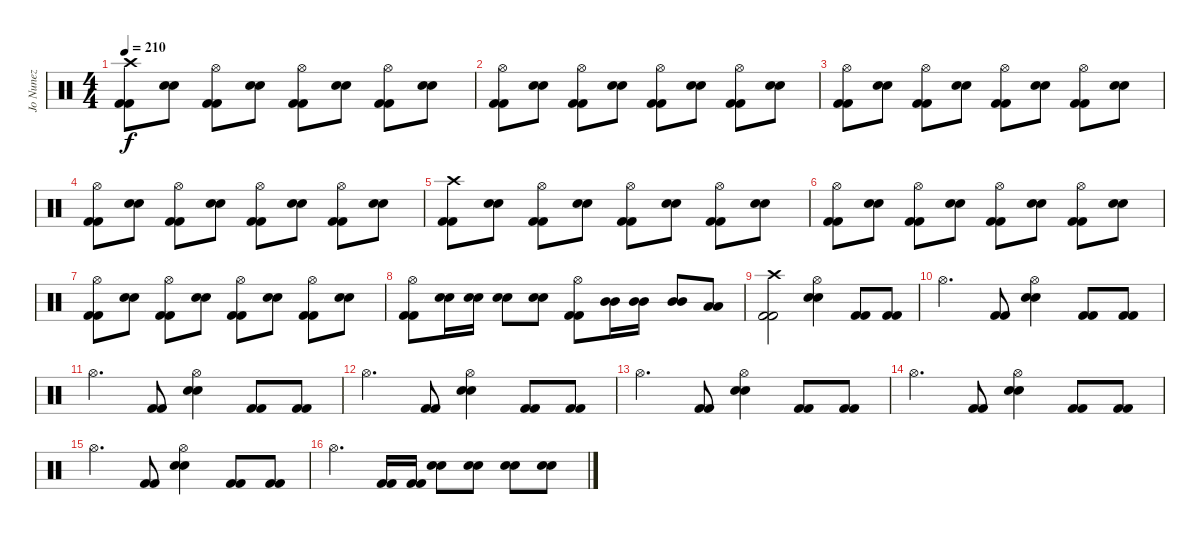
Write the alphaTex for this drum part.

\track ("Jo Nunez" "Jo Nunez") {instrument percussion}
\staff {score}
\articulation defaults
\ts (4 4)
\tempo 210
\clef neutral
\ks c
("Kick (hit) 2" "Kick (hit) 2" "Crash high (hit)").8{dy f} ("Electric Snare (hit)" "Electric Snare (hit)").8 ("Kick (hit) 2" "Kick (hit) 2" "Hi-Hat (open)").8 ("Electric Snare (hit)" "Electric Snare (hit)").8 ("Kick (hit) 2" "Kick (hit) 2" "Hi-Hat (open)").8 ("Electric Snare (hit)" "Electric Snare (hit)").8 ("Kick (hit) 2" "Kick (hit) 2" "Hi-Hat (open)").8 ("Electric Snare (hit)" "Electric Snare (hit)").8 |
("Kick (hit) 2" "Kick (hit) 2" "Hi-Hat (open)").8 ("Electric Snare (hit)" "Electric Snare (hit)").8 ("Kick (hit) 2" "Kick (hit) 2" "Hi-Hat (open)").8 ("Electric Snare (hit)" "Electric Snare (hit)").8 ("Kick (hit) 2" "Kick (hit) 2" "Hi-Hat (open)").8 ("Electric Snare (hit)" "Electric Snare (hit)").8 ("Kick (hit) 2" "Kick (hit) 2" "Hi-Hat (open)").8 ("Electric Snare (hit)" "Electric Snare (hit)").8 |
("Kick (hit) 2" "Kick (hit) 2" "Hi-Hat (open)").8 ("Electric Snare (hit)" "Electric Snare (hit)").8 ("Kick (hit) 2" "Kick (hit) 2" "Hi-Hat (open)").8 ("Electric Snare (hit)" "Electric Snare (hit)").8 ("Kick (hit) 2" "Kick (hit) 2" "Hi-Hat (open)").8 ("Electric Snare (hit)" "Electric Snare (hit)").8 ("Kick (hit) 2" "Kick (hit) 2" "Hi-Hat (open)").8 ("Electric Snare (hit)" "Electric Snare (hit)").8 |
("Kick (hit) 2" "Kick (hit) 2" "Hi-Hat (open)").8 ("Electric Snare (hit)" "Electric Snare (hit)").8 ("Kick (hit) 2" "Kick (hit) 2" "Hi-Hat (open)").8 ("Electric Snare (hit)" "Electric Snare (hit)").8 ("Kick (hit) 2" "Kick (hit) 2" "Hi-Hat (open)").8 ("Electric Snare (hit)" "Electric Snare (hit)").8 ("Kick (hit) 2" "Kick (hit) 2" "Hi-Hat (open)").8 ("Electric Snare (hit)" "Electric Snare (hit)").8 |
("Kick (hit) 2" "Kick (hit) 2" "Crash high (hit)").8 ("Electric Snare (hit)" "Electric Snare (hit)").8 ("Kick (hit) 2" "Kick (hit) 2" "Hi-Hat (open)").8 ("Electric Snare (hit)" "Electric Snare (hit)").8 ("Kick (hit) 2" "Kick (hit) 2" "Hi-Hat (open)").8 ("Electric Snare (hit)" "Electric Snare (hit)").8 ("Kick (hit) 2" "Kick (hit) 2" "Hi-Hat (open)").8 ("Electric Snare (hit)" "Electric Snare (hit)").8 |
("Kick (hit) 2" "Kick (hit) 2" "Hi-Hat (open)").8 ("Electric Snare (hit)" "Electric Snare (hit)").8 ("Kick (hit) 2" "Kick (hit) 2" "Hi-Hat (open)").8 ("Electric Snare (hit)" "Electric Snare (hit)").8 ("Kick (hit) 2" "Kick (hit) 2" "Hi-Hat (open)").8 ("Electric Snare (hit)" "Electric Snare (hit)").8 ("Kick (hit) 2" "Kick (hit) 2" "Hi-Hat (open)").8 ("Electric Snare (hit)" "Electric Snare (hit)").8 |
("Kick (hit) 2" "Kick (hit) 2" "Hi-Hat (open)").8 ("Electric Snare (hit)" "Electric Snare (hit)").8 ("Kick (hit) 2" "Kick (hit) 2" "Hi-Hat (open)").8 ("Electric Snare (hit)" "Electric Snare (hit)").8 ("Kick (hit) 2" "Kick (hit) 2" "Hi-Hat (open)").8 ("Electric Snare (hit)" "Electric Snare (hit)").8 ("Kick (hit) 2" "Kick (hit) 2" "Hi-Hat (open)").8 ("Electric Snare (hit)" "Electric Snare (hit)").8 |
("Kick (hit) 2" "Kick (hit) 2" "Hi-Hat (open)").8 ("Electric Snare (hit)" "Electric Snare (hit)").16 ("Electric Snare (hit)" "Electric Snare (hit)").16 ("Electric Snare (hit)" "Electric Snare (hit)").8 ("Electric Snare (hit)" "Electric Snare (hit)").8 ("Kick (hit) 2" "Kick (hit) 2" "Hi-Hat (open)").8 ("Mid Tom (hit)" "Mid Tom (hit)").16 ("Mid Tom (hit)" "Mid Tom (hit)").16 ("Mid Tom (hit)" "Mid Tom (hit)").8 ("Low Floor Tom (hit)" "Low Floor Tom (hit)").8 |
("Kick (hit) 2" "Kick (hit) 2" "Crash high (hit)").2 ("Electric Snare (hit)" "Electric Snare (hit)" "Hi-Hat (open)").4 ("Kick (hit) 2" "Kick (hit) 2").8 ("Kick (hit) 2" "Kick (hit) 2").8 |
"Hi-Hat (open)".4{d} ("Kick (hit) 2" "Kick (hit) 2").8 ("Electric Snare (hit)" "Electric Snare (hit)" "Hi-Hat (open)").4 ("Kick (hit) 2" "Kick (hit) 2").8 ("Kick (hit) 2" "Kick (hit) 2").8 |
"Hi-Hat (open)".4{d} ("Kick (hit) 2" "Kick (hit) 2").8 ("Electric Snare (hit)" "Electric Snare (hit)" "Hi-Hat (open)").4 ("Kick (hit) 2" "Kick (hit) 2").8 ("Kick (hit) 2" "Kick (hit) 2").8 |
"Hi-Hat (open)".4{d} ("Kick (hit) 2" "Kick (hit) 2").8 ("Electric Snare (hit)" "Electric Snare (hit)" "Hi-Hat (open)").4 ("Kick (hit) 2" "Kick (hit) 2").8 ("Kick (hit) 2" "Kick (hit) 2").8 |
"Hi-Hat (open)".4{d} ("Kick (hit) 2" "Kick (hit) 2").8 ("Electric Snare (hit)" "Electric Snare (hit)" "Hi-Hat (open)").4 ("Kick (hit) 2" "Kick (hit) 2").8 ("Kick (hit) 2" "Kick (hit) 2").8 |
"Hi-Hat (open)".4{d} ("Kick (hit) 2" "Kick (hit) 2").8 ("Electric Snare (hit)" "Electric Snare (hit)" "Hi-Hat (open)").4 ("Kick (hit) 2" "Kick (hit) 2").8 ("Kick (hit) 2" "Kick (hit) 2").8 |
"Hi-Hat (open)".4{d} ("Kick (hit) 2" "Kick (hit) 2").8 ("Electric Snare (hit)" "Electric Snare (hit)" "Hi-Hat (open)").4 ("Kick (hit) 2" "Kick (hit) 2").8 ("Kick (hit) 2" "Kick (hit) 2").8 |
"Hi-Hat (open)".4{d} ("Kick (hit) 2" "Kick (hit) 2").16 ("Kick (hit) 2" "Kick (hit) 2").16 ("Electric Snare (hit)" "Electric Snare (hit)").8 ("Electric Snare (hit)" "Electric Snare (hit)").8 ("Electric Snare (hit)" "Electric Snare (hit)").8 ("Electric Snare (hit)" "Electric Snare (hit)").8
